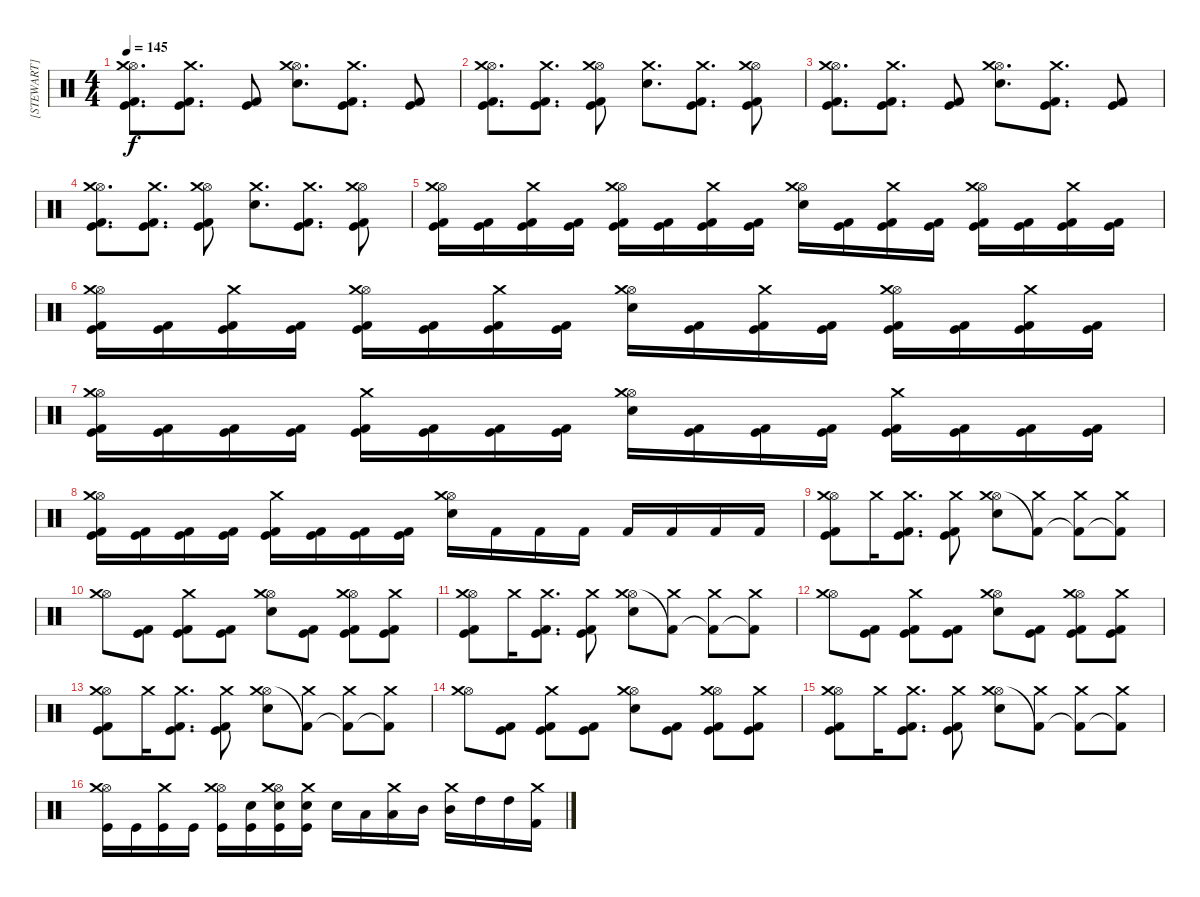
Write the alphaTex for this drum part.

\track ("[STEWART]" "[STEWART]") {instrument percussion}
\staff {score}
\articulation defaults
\ts (4 4)
\tempo 145
\clef neutral
\ks c
("Hi-Hat (open)" "Crash medium (hit)" "Kick (hit) 2" "Kick (hit)").8{d dy f} ("Crash medium (hit)" "Kick (hit) 2" "Kick (hit)").8{d} ("Kick (hit) 2" "Kick (hit)").8 ("Hi-Hat (open)" "Crash medium (hit)" "Electric Snare (hit)").8{d} ("Crash medium (hit)" "Kick (hit) 2" "Kick (hit)").8{d} ("Kick (hit) 2" "Kick (hit)").8 |
("Hi-Hat (open)" "Crash medium (hit)" "Kick (hit) 2" "Kick (hit)").8{d} ("Crash medium (hit)" "Kick (hit) 2" "Kick (hit)").8{d} ("Hi-Hat (open)" "Crash medium (hit)" "Kick (hit) 2" "Kick (hit)").8 ("Crash medium (hit)" "Electric Snare (hit)").8{d} ("Crash medium (hit)" "Kick (hit) 2" "Kick (hit)").8{d} ("Hi-Hat (open)" "Crash medium (hit)" "Kick (hit) 2" "Kick (hit)").8 |
("Hi-Hat (open)" "Crash medium (hit)" "Kick (hit) 2" "Kick (hit)").8{d} ("Crash medium (hit)" "Kick (hit) 2" "Kick (hit)").8{d} ("Kick (hit) 2" "Kick (hit)").8 ("Hi-Hat (open)" "Crash medium (hit)" "Electric Snare (hit)").8{d} ("Crash medium (hit)" "Kick (hit) 2" "Kick (hit)").8{d} ("Kick (hit) 2" "Kick (hit)").8 |
("Hi-Hat (open)" "Crash medium (hit)" "Kick (hit) 2" "Kick (hit)").8{d} ("Crash medium (hit)" "Kick (hit) 2" "Kick (hit)").8{d} ("Hi-Hat (open)" "Crash medium (hit)" "Kick (hit) 2" "Kick (hit)").8 ("Crash medium (hit)" "Electric Snare (hit)").8{d} ("Crash medium (hit)" "Kick (hit) 2" "Kick (hit)").8{d} ("Hi-Hat (open)" "Crash medium (hit)" "Kick (hit) 2" "Kick (hit)").8 |
("Hi-Hat (open)" "Crash medium (hit)" "Kick (hit) 2" "Kick (hit)").16 ("Kick (hit) 2" "Kick (hit)").16 ("Crash medium (hit)" "Kick (hit) 2" "Kick (hit)").16 ("Kick (hit) 2" "Kick (hit)").16 ("Hi-Hat (open)" "Crash medium (hit)" "Kick (hit) 2" "Kick (hit)").16 ("Kick (hit) 2" "Kick (hit)").16 ("Crash medium (hit)" "Kick (hit) 2" "Kick (hit)").16 ("Kick (hit) 2" "Kick (hit)").16 ("Hi-Hat (open)" "Crash medium (hit)" "Electric Snare (hit)").16 ("Kick (hit) 2" "Kick (hit)").16 ("Crash medium (hit)" "Kick (hit) 2" "Kick (hit)").16 ("Kick (hit) 2" "Kick (hit)").16 ("Hi-Hat (open)" "Crash medium (hit)" "Kick (hit) 2" "Kick (hit)").16 ("Kick (hit) 2" "Kick (hit)").16 ("Crash medium (hit)" "Kick (hit) 2" "Kick (hit)").16 ("Kick (hit) 2" "Kick (hit)").16 |
("Hi-Hat (open)" "Crash medium (hit)" "Kick (hit) 2" "Kick (hit)").16 ("Kick (hit) 2" "Kick (hit)").16 ("Crash medium (hit)" "Kick (hit) 2" "Kick (hit)").16 ("Kick (hit) 2" "Kick (hit)").16 ("Hi-Hat (open)" "Crash medium (hit)" "Kick (hit) 2" "Kick (hit)").16 ("Kick (hit) 2" "Kick (hit)").16 ("Crash medium (hit)" "Kick (hit) 2" "Kick (hit)").16 ("Kick (hit) 2" "Kick (hit)").16 ("Hi-Hat (open)" "Crash medium (hit)" "Electric Snare (hit)").16 ("Kick (hit) 2" "Kick (hit)").16 ("Crash medium (hit)" "Kick (hit) 2" "Kick (hit)").16 ("Kick (hit) 2" "Kick (hit)").16 ("Hi-Hat (open)" "Crash medium (hit)" "Kick (hit) 2" "Kick (hit)").16 ("Kick (hit) 2" "Kick (hit)").16 ("Crash medium (hit)" "Kick (hit) 2" "Kick (hit)").16 ("Kick (hit) 2" "Kick (hit)").16 |
("Hi-Hat (open)" "Crash medium (hit)" "Kick (hit) 2" "Kick (hit)").16 ("Kick (hit) 2" "Kick (hit)").16 ("Kick (hit) 2" "Kick (hit)").16 ("Kick (hit) 2" "Kick (hit)").16 ("Crash medium (hit)" "Kick (hit) 2" "Kick (hit)").16 ("Kick (hit) 2" "Kick (hit)").16 ("Kick (hit) 2" "Kick (hit)").16 ("Kick (hit) 2" "Kick (hit)").16 ("Hi-Hat (open)" "Crash medium (hit)" "Electric Snare (hit)").16 ("Kick (hit) 2" "Kick (hit)").16 ("Kick (hit) 2" "Kick (hit)").16 ("Kick (hit) 2" "Kick (hit)").16 ("Crash medium (hit)" "Kick (hit) 2" "Kick (hit)").16 ("Kick (hit) 2" "Kick (hit)").16 ("Kick (hit) 2" "Kick (hit)").16 ("Kick (hit) 2" "Kick (hit)").16 |
("Hi-Hat (open)" "Crash medium (hit)" "Kick (hit) 2" "Kick (hit)").16 ("Kick (hit) 2" "Kick (hit)").16 ("Kick (hit) 2" "Kick (hit)").16 ("Kick (hit) 2" "Kick (hit)").16 ("Crash medium (hit)" "Kick (hit) 2" "Kick (hit)").16 ("Kick (hit) 2" "Kick (hit)").16 ("Kick (hit) 2" "Kick (hit)").16 ("Kick (hit) 2" "Kick (hit)").16 ("Hi-Hat (open)" "Crash medium (hit)" "Electric Snare (hit)").16 "Kick (hit) 2".16 "Kick (hit) 2".16 "Kick (hit) 2".16 "Kick (hit) 2".16 "Kick (hit) 2".16 "Kick (hit) 2".16 "Kick (hit) 2".16 |
("Hi-Hat (open)" "Crash medium (hit)" "Kick (hit) 2" "Kick (hit)").8 "Crash medium (hit)".16 ("Crash medium (hit)" "Kick (hit) 2" "Kick (hit)").8{d} ("Crash medium (hit)" "Kick (hit) 2" "Kick (hit)").8 ("Hi-Hat (open)" "Crash medium (hit)" "Electric Snare (hit)").8 ("Crash medium (hit)" "Kick (hit) 2"{t}).8 ("Crash medium (hit)" "Kick (hit) 2"{t}).8 ("Crash medium (hit)" "Kick (hit) 2"{t}).8 |
("Hi-Hat (open)" "Crash medium (hit)").8 ("Kick (hit) 2" "Kick (hit)").8 ("Crash medium (hit)" "Kick (hit) 2" "Kick (hit)").8 ("Kick (hit) 2" "Kick (hit)").8 ("Hi-Hat (open)" "Crash medium (hit)" "Electric Snare (hit)").8 ("Kick (hit) 2" "Kick (hit)").8 ("Hi-Hat (open)" "Crash medium (hit)" "Kick (hit) 2" "Kick (hit)").8 ("Crash medium (hit)" "Kick (hit) 2" "Kick (hit)").8 |
("Hi-Hat (open)" "Crash medium (hit)" "Kick (hit) 2" "Kick (hit)").8 "Crash medium (hit)".16 ("Crash medium (hit)" "Kick (hit) 2" "Kick (hit)").8{d} ("Crash medium (hit)" "Kick (hit) 2" "Kick (hit)").8 ("Hi-Hat (open)" "Crash medium (hit)" "Electric Snare (hit)").8 ("Crash medium (hit)" "Kick (hit) 2"{t}).8 ("Crash medium (hit)" "Kick (hit) 2"{t}).8 ("Crash medium (hit)" "Kick (hit) 2"{t}).8 |
("Hi-Hat (open)" "Crash medium (hit)").8 ("Kick (hit) 2" "Kick (hit)").8 ("Crash medium (hit)" "Kick (hit) 2" "Kick (hit)").8 ("Kick (hit) 2" "Kick (hit)").8 ("Hi-Hat (open)" "Crash medium (hit)" "Electric Snare (hit)").8 ("Kick (hit) 2" "Kick (hit)").8 ("Hi-Hat (open)" "Crash medium (hit)" "Kick (hit) 2" "Kick (hit)").8 ("Crash medium (hit)" "Kick (hit) 2" "Kick (hit)").8 |
("Hi-Hat (open)" "Crash medium (hit)" "Kick (hit) 2" "Kick (hit)").8 "Crash medium (hit)".16 ("Crash medium (hit)" "Kick (hit) 2" "Kick (hit)").8{d} ("Crash medium (hit)" "Kick (hit) 2" "Kick (hit)").8 ("Hi-Hat (open)" "Crash medium (hit)" "Electric Snare (hit)").8 ("Crash medium (hit)" "Kick (hit) 2"{t}).8 ("Crash medium (hit)" "Kick (hit) 2"{t}).8 ("Crash medium (hit)" "Kick (hit) 2"{t}).8 |
("Hi-Hat (open)" "Crash medium (hit)").8 ("Kick (hit) 2" "Kick (hit)").8 ("Crash medium (hit)" "Kick (hit) 2" "Kick (hit)").8 ("Kick (hit) 2" "Kick (hit)").8 ("Hi-Hat (open)" "Crash medium (hit)" "Electric Snare (hit)").8 ("Kick (hit) 2" "Kick (hit)").8 ("Hi-Hat (open)" "Crash medium (hit)" "Kick (hit) 2" "Kick (hit)").8 ("Crash medium (hit)" "Kick (hit) 2" "Kick (hit)").8 |
("Hi-Hat (open)" "Crash medium (hit)" "Kick (hit) 2" "Kick (hit)").8 "Crash medium (hit)".16 ("Crash medium (hit)" "Kick (hit) 2" "Kick (hit)").8{d} ("Crash medium (hit)" "Kick (hit) 2" "Kick (hit)").8 ("Hi-Hat (open)" "Crash medium (hit)" "Electric Snare (hit)").8 ("Crash medium (hit)" "Kick (hit) 2"{t}).8 ("Crash medium (hit)" "Kick (hit) 2"{t}).8 ("Crash medium (hit)" "Kick (hit) 2"{t}).8 |
("Hi-Hat (open)" "Crash medium (hit)" "Kick (hit)").16 "Kick (hit)".16 ("Crash medium (hit)" "Kick (hit)").16 "Kick (hit)".16 ("Hi-Hat (open)" "Crash medium (hit)" "Kick (hit)").16 ("Electric Snare (hit)" "Kick (hit)").16 ("Hi-Hat (open)" "Crash medium (hit)" "Electric Snare (hit)" "Kick (hit)").16 ("Crash medium (hit)" "Electric Snare (hit)" "Kick (hit)").16 "Electric Snare (hit)".16 "Low Tom (hit)".16 ("Crash medium (hit)" "Low Tom (hit)").16 "Mid Tom (hit)".16 ("Crash medium (hit)" "Mid Tom (hit)").16 "High Tom (hit)".16 "High Tom (hit)".16 ("Crash medium (hit)" "Kick (hit) 2").16
